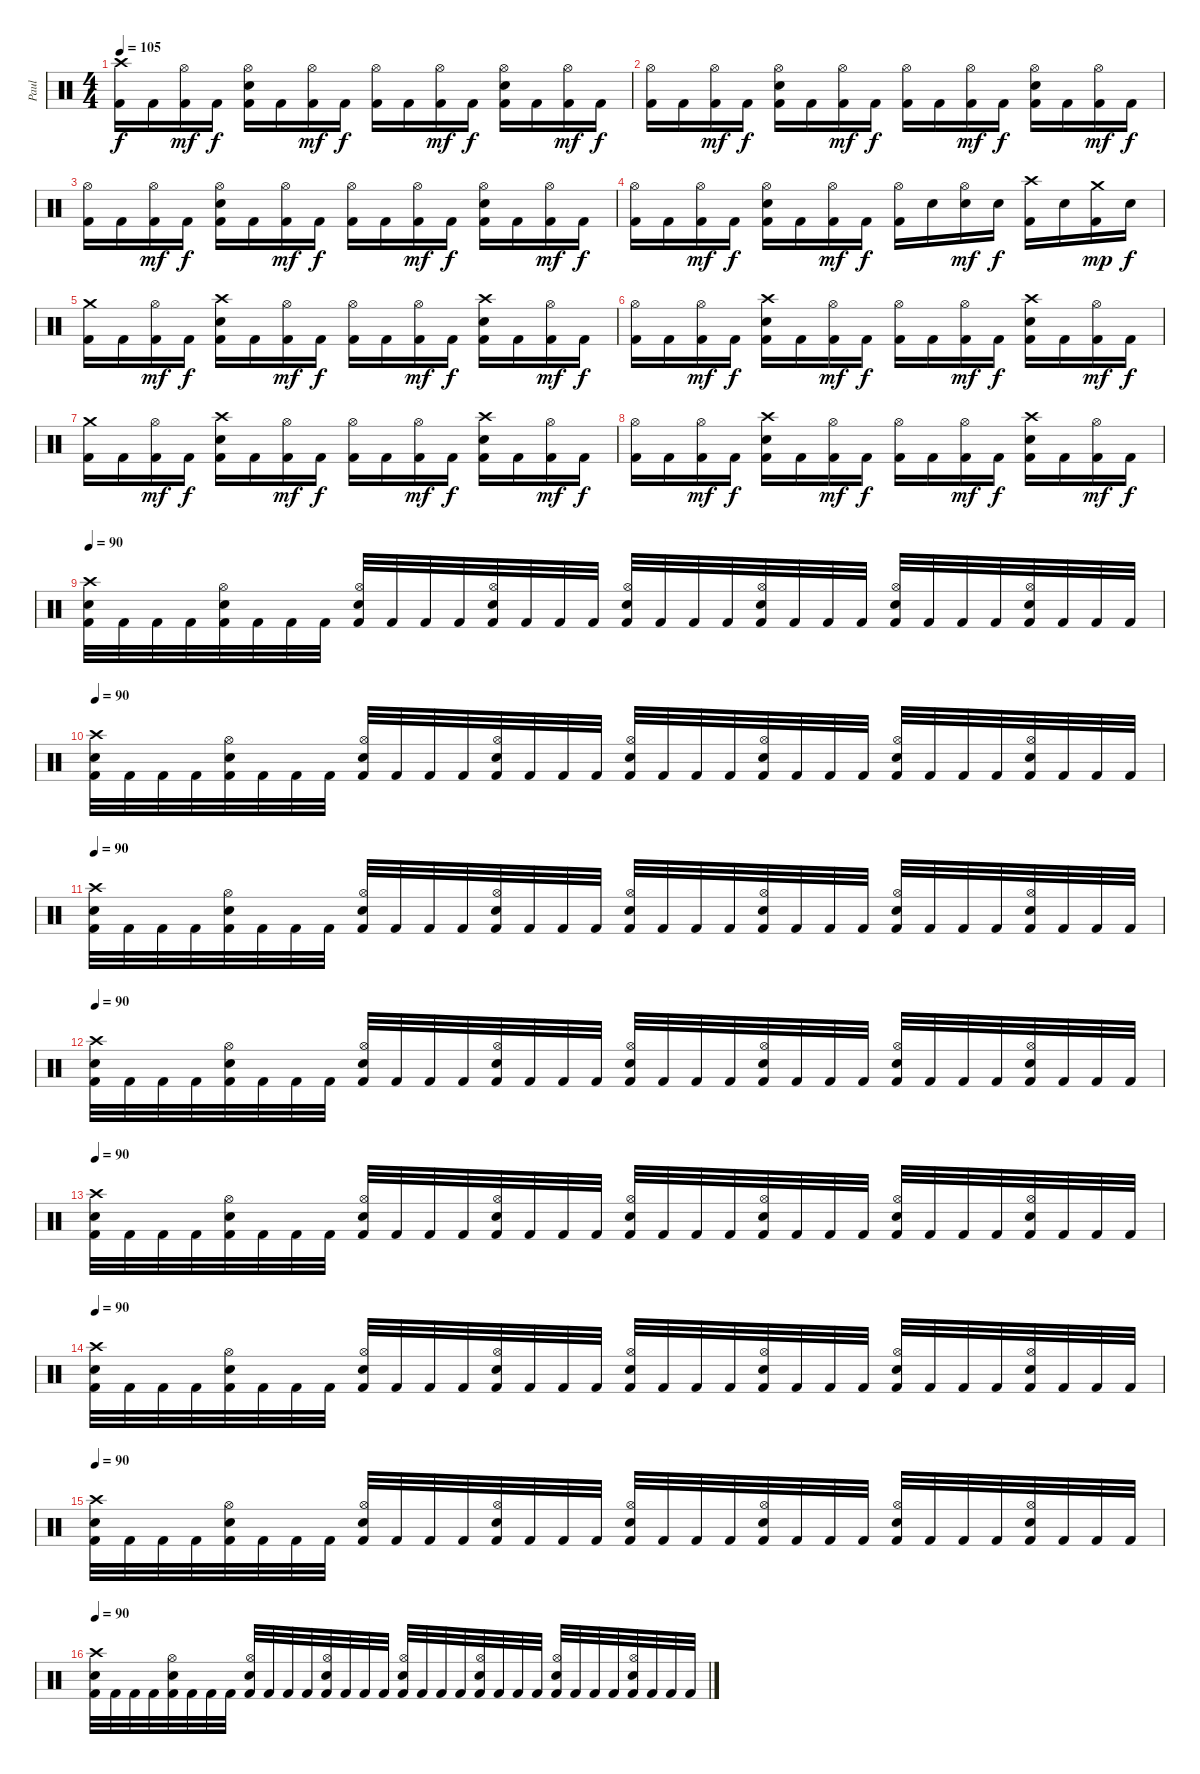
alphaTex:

\track ("Paul" "Paul") {instrument percussion}
\staff {score}
\articulation defaults
\ts (4 4)
\tempo 105
\clef neutral
\ks c
("Crash high (hit)" "Kick (hit) 2").16{dy f} "Kick (hit) 2".16 ("Hi-Hat (open)" "Kick (hit) 2").16{dy mf} "Kick (hit) 2".16{dy f} ("Hi-Hat (open)" "Electric Snare (hit)" "Kick (hit) 2").16 "Kick (hit) 2".16 ("Hi-Hat (open)" "Kick (hit) 2").16{dy mf} "Kick (hit) 2".16{dy f} ("Hi-Hat (open)" "Kick (hit) 2").16 "Kick (hit) 2".16 ("Hi-Hat (open)" "Kick (hit) 2").16{dy mf} "Kick (hit) 2".16{dy f} ("Hi-Hat (open)" "Electric Snare (hit)" "Kick (hit) 2").16 "Kick (hit) 2".16 ("Hi-Hat (open)" "Kick (hit) 2").16{dy mf} "Kick (hit) 2".16{dy f} |
("Hi-Hat (open)" "Kick (hit) 2").16 "Kick (hit) 2".16 ("Hi-Hat (open)" "Kick (hit) 2").16{dy mf} "Kick (hit) 2".16{dy f} ("Hi-Hat (open)" "Electric Snare (hit)" "Kick (hit) 2").16 "Kick (hit) 2".16 ("Hi-Hat (open)" "Kick (hit) 2").16{dy mf} "Kick (hit) 2".16{dy f} ("Hi-Hat (open)" "Kick (hit) 2").16 "Kick (hit) 2".16 ("Hi-Hat (open)" "Kick (hit) 2").16{dy mf} "Kick (hit) 2".16{dy f} ("Hi-Hat (open)" "Electric Snare (hit)" "Kick (hit) 2").16 "Kick (hit) 2".16 ("Hi-Hat (open)" "Kick (hit) 2").16{dy mf} "Kick (hit) 2".16{dy f} |
("Hi-Hat (open)" "Kick (hit) 2").16 "Kick (hit) 2".16 ("Hi-Hat (open)" "Kick (hit) 2").16{dy mf} "Kick (hit) 2".16{dy f} ("Hi-Hat (open)" "Electric Snare (hit)" "Kick (hit) 2").16 "Kick (hit) 2".16 ("Hi-Hat (open)" "Kick (hit) 2").16{dy mf} "Kick (hit) 2".16{dy f} ("Hi-Hat (open)" "Kick (hit) 2").16 "Kick (hit) 2".16 ("Hi-Hat (open)" "Kick (hit) 2").16{dy mf} "Kick (hit) 2".16{dy f} ("Hi-Hat (open)" "Electric Snare (hit)" "Kick (hit) 2").16 "Kick (hit) 2".16 ("Hi-Hat (open)" "Kick (hit) 2").16{dy mf} "Kick (hit) 2".16{dy f} |
("Hi-Hat (open)" "Kick (hit) 2").16 "Kick (hit) 2".16 ("Hi-Hat (open)" "Kick (hit) 2").16{dy mf} "Kick (hit) 2".16{dy f} ("Hi-Hat (open)" "Electric Snare (hit)" "Kick (hit) 2").16 "Kick (hit) 2".16 ("Hi-Hat (open)" "Kick (hit) 2").16{dy mf} "Kick (hit) 2".16{dy f} ("Hi-Hat (open)" "Kick (hit) 2").16 "Electric Snare (hit)".16 ("Hi-Hat (open)" "Electric Snare (hit)").16{dy mf} "Electric Snare (hit)".16{dy f} ("Crash high (hit)" "Kick (hit) 2").16 "Electric Snare (hit)".16 ("Crash medium (hit)" "Kick (hit) 2").16{dy mp} "Electric Snare (hit)".16{dy f} |
("Crash medium (hit)" "Kick (hit) 2").16 "Kick (hit) 2".16 ("Hi-Hat (open)" "Kick (hit) 2").16{dy mf} "Kick (hit) 2".16{dy f} ("Crash high (hit)" "Electric Snare (hit)" "Kick (hit) 2").16 "Kick (hit) 2".16 ("Hi-Hat (open)" "Kick (hit) 2").16{dy mf} "Kick (hit) 2".16{dy f} ("Hi-Hat (open)" "Kick (hit) 2").16 "Kick (hit) 2".16 ("Hi-Hat (open)" "Kick (hit) 2").16{dy mf} "Kick (hit) 2".16{dy f} ("Crash high (hit)" "Electric Snare (hit)" "Kick (hit) 2").16 "Kick (hit) 2".16 ("Hi-Hat (open)" "Kick (hit) 2").16{dy mf} "Kick (hit) 2".16{dy f} |
("Hi-Hat (open)" "Kick (hit) 2").16 "Kick (hit) 2".16 ("Hi-Hat (open)" "Kick (hit) 2").16{dy mf} "Kick (hit) 2".16{dy f} ("Crash high (hit)" "Electric Snare (hit)" "Kick (hit) 2").16 "Kick (hit) 2".16 ("Hi-Hat (open)" "Kick (hit) 2").16{dy mf} "Kick (hit) 2".16{dy f} ("Hi-Hat (open)" "Kick (hit) 2").16 "Kick (hit) 2".16 ("Hi-Hat (open)" "Kick (hit) 2").16{dy mf} "Kick (hit) 2".16{dy f} ("Crash high (hit)" "Electric Snare (hit)" "Kick (hit) 2").16 "Kick (hit) 2".16 ("Hi-Hat (open)" "Kick (hit) 2").16{dy mf} "Kick (hit) 2".16{dy f} |
("Crash medium (hit)" "Kick (hit) 2").16 "Kick (hit) 2".16 ("Hi-Hat (open)" "Kick (hit) 2").16{dy mf} "Kick (hit) 2".16{dy f} ("Crash high (hit)" "Electric Snare (hit)" "Kick (hit) 2").16 "Kick (hit) 2".16 ("Hi-Hat (open)" "Kick (hit) 2").16{dy mf} "Kick (hit) 2".16{dy f} ("Hi-Hat (open)" "Kick (hit) 2").16 "Kick (hit) 2".16 ("Hi-Hat (open)" "Kick (hit) 2").16{dy mf} "Kick (hit) 2".16{dy f} ("Crash high (hit)" "Electric Snare (hit)" "Kick (hit) 2").16 "Kick (hit) 2".16 ("Hi-Hat (open)" "Kick (hit) 2").16{dy mf} "Kick (hit) 2".16{dy f} |
("Hi-Hat (open)" "Kick (hit) 2").16 "Kick (hit) 2".16 ("Hi-Hat (open)" "Kick (hit) 2").16{dy mf} "Kick (hit) 2".16{dy f} ("Crash high (hit)" "Electric Snare (hit)" "Kick (hit) 2").16 "Kick (hit) 2".16 ("Hi-Hat (open)" "Kick (hit) 2").16{dy mf} "Kick (hit) 2".16{dy f} ("Hi-Hat (open)" "Kick (hit) 2").16 "Kick (hit) 2".16 ("Hi-Hat (open)" "Kick (hit) 2").16{dy mf} "Kick (hit) 2".16{dy f} ("Crash high (hit)" "Electric Snare (hit)" "Kick (hit) 2").16 "Kick (hit) 2".16 ("Hi-Hat (open)" "Kick (hit) 2").16{dy mf} "Kick (hit) 2".16{dy f} |
\tempo 90
("Crash high (hit)" "Electric Snare (hit)" "Kick (hit) 2").32 "Kick (hit) 2".32 "Kick (hit) 2".32 "Kick (hit) 2".32 ("Hi-Hat (open)" "Electric Snare (hit)" "Kick (hit) 2").32 "Kick (hit) 2".32 "Kick (hit) 2".32 "Kick (hit) 2".32 ("Hi-Hat (open)" "Electric Snare (hit)" "Kick (hit) 2").32 "Kick (hit) 2".32 "Kick (hit) 2".32 "Kick (hit) 2".32 ("Hi-Hat (open)" "Electric Snare (hit)" "Kick (hit) 2").32 "Kick (hit) 2".32 "Kick (hit) 2".32 "Kick (hit) 2".32 ("Hi-Hat (open)" "Electric Snare (hit)" "Kick (hit) 2").32 "Kick (hit) 2".32 "Kick (hit) 2".32 "Kick (hit) 2".32 ("Hi-Hat (open)" "Electric Snare (hit)" "Kick (hit) 2").32 "Kick (hit) 2".32 "Kick (hit) 2".32 "Kick (hit) 2".32 ("Hi-Hat (open)" "Electric Snare (hit)" "Kick (hit) 2").32 "Kick (hit) 2".32 "Kick (hit) 2".32 "Kick (hit) 2".32 ("Hi-Hat (open)" "Electric Snare (hit)" "Kick (hit) 2").32 "Kick (hit) 2".32 "Kick (hit) 2".32 "Kick (hit) 2".32 |
\tempo 90
("Crash high (hit)" "Electric Snare (hit)" "Kick (hit) 2").32 "Kick (hit) 2".32 "Kick (hit) 2".32 "Kick (hit) 2".32 ("Hi-Hat (open)" "Electric Snare (hit)" "Kick (hit) 2").32 "Kick (hit) 2".32 "Kick (hit) 2".32 "Kick (hit) 2".32 ("Hi-Hat (open)" "Electric Snare (hit)" "Kick (hit) 2").32 "Kick (hit) 2".32 "Kick (hit) 2".32 "Kick (hit) 2".32 ("Hi-Hat (open)" "Electric Snare (hit)" "Kick (hit) 2").32 "Kick (hit) 2".32 "Kick (hit) 2".32 "Kick (hit) 2".32 ("Hi-Hat (open)" "Electric Snare (hit)" "Kick (hit) 2").32 "Kick (hit) 2".32 "Kick (hit) 2".32 "Kick (hit) 2".32 ("Hi-Hat (open)" "Electric Snare (hit)" "Kick (hit) 2").32 "Kick (hit) 2".32 "Kick (hit) 2".32 "Kick (hit) 2".32 ("Hi-Hat (open)" "Electric Snare (hit)" "Kick (hit) 2").32 "Kick (hit) 2".32 "Kick (hit) 2".32 "Kick (hit) 2".32 ("Hi-Hat (open)" "Electric Snare (hit)" "Kick (hit) 2").32 "Kick (hit) 2".32 "Kick (hit) 2".32 "Kick (hit) 2".32 |
\tempo 90
("Crash high (hit)" "Electric Snare (hit)" "Kick (hit) 2").32 "Kick (hit) 2".32 "Kick (hit) 2".32 "Kick (hit) 2".32 ("Hi-Hat (open)" "Electric Snare (hit)" "Kick (hit) 2").32 "Kick (hit) 2".32 "Kick (hit) 2".32 "Kick (hit) 2".32 ("Hi-Hat (open)" "Electric Snare (hit)" "Kick (hit) 2").32 "Kick (hit) 2".32 "Kick (hit) 2".32 "Kick (hit) 2".32 ("Hi-Hat (open)" "Electric Snare (hit)" "Kick (hit) 2").32 "Kick (hit) 2".32 "Kick (hit) 2".32 "Kick (hit) 2".32 ("Hi-Hat (open)" "Electric Snare (hit)" "Kick (hit) 2").32 "Kick (hit) 2".32 "Kick (hit) 2".32 "Kick (hit) 2".32 ("Hi-Hat (open)" "Electric Snare (hit)" "Kick (hit) 2").32 "Kick (hit) 2".32 "Kick (hit) 2".32 "Kick (hit) 2".32 ("Hi-Hat (open)" "Electric Snare (hit)" "Kick (hit) 2").32 "Kick (hit) 2".32 "Kick (hit) 2".32 "Kick (hit) 2".32 ("Hi-Hat (open)" "Electric Snare (hit)" "Kick (hit) 2").32 "Kick (hit) 2".32 "Kick (hit) 2".32 "Kick (hit) 2".32 |
\tempo 90
("Crash high (hit)" "Electric Snare (hit)" "Kick (hit) 2").32 "Kick (hit) 2".32 "Kick (hit) 2".32 "Kick (hit) 2".32 ("Hi-Hat (open)" "Electric Snare (hit)" "Kick (hit) 2").32 "Kick (hit) 2".32 "Kick (hit) 2".32 "Kick (hit) 2".32 ("Hi-Hat (open)" "Electric Snare (hit)" "Kick (hit) 2").32 "Kick (hit) 2".32 "Kick (hit) 2".32 "Kick (hit) 2".32 ("Hi-Hat (open)" "Electric Snare (hit)" "Kick (hit) 2").32 "Kick (hit) 2".32 "Kick (hit) 2".32 "Kick (hit) 2".32 ("Hi-Hat (open)" "Electric Snare (hit)" "Kick (hit) 2").32 "Kick (hit) 2".32 "Kick (hit) 2".32 "Kick (hit) 2".32 ("Hi-Hat (open)" "Electric Snare (hit)" "Kick (hit) 2").32 "Kick (hit) 2".32 "Kick (hit) 2".32 "Kick (hit) 2".32 ("Hi-Hat (open)" "Electric Snare (hit)" "Kick (hit) 2").32 "Kick (hit) 2".32 "Kick (hit) 2".32 "Kick (hit) 2".32 ("Hi-Hat (open)" "Electric Snare (hit)" "Kick (hit) 2").32 "Kick (hit) 2".32 "Kick (hit) 2".32 "Kick (hit) 2".32 |
\tempo 90
("Crash high (hit)" "Electric Snare (hit)" "Kick (hit) 2").32 "Kick (hit) 2".32 "Kick (hit) 2".32 "Kick (hit) 2".32 ("Hi-Hat (open)" "Electric Snare (hit)" "Kick (hit) 2").32 "Kick (hit) 2".32 "Kick (hit) 2".32 "Kick (hit) 2".32 ("Hi-Hat (open)" "Electric Snare (hit)" "Kick (hit) 2").32 "Kick (hit) 2".32 "Kick (hit) 2".32 "Kick (hit) 2".32 ("Hi-Hat (open)" "Electric Snare (hit)" "Kick (hit) 2").32 "Kick (hit) 2".32 "Kick (hit) 2".32 "Kick (hit) 2".32 ("Hi-Hat (open)" "Electric Snare (hit)" "Kick (hit) 2").32 "Kick (hit) 2".32 "Kick (hit) 2".32 "Kick (hit) 2".32 ("Hi-Hat (open)" "Electric Snare (hit)" "Kick (hit) 2").32 "Kick (hit) 2".32 "Kick (hit) 2".32 "Kick (hit) 2".32 ("Hi-Hat (open)" "Electric Snare (hit)" "Kick (hit) 2").32 "Kick (hit) 2".32 "Kick (hit) 2".32 "Kick (hit) 2".32 ("Hi-Hat (open)" "Electric Snare (hit)" "Kick (hit) 2").32 "Kick (hit) 2".32 "Kick (hit) 2".32 "Kick (hit) 2".32 |
\tempo 90
("Crash high (hit)" "Electric Snare (hit)" "Kick (hit) 2").32 "Kick (hit) 2".32 "Kick (hit) 2".32 "Kick (hit) 2".32 ("Hi-Hat (open)" "Electric Snare (hit)" "Kick (hit) 2").32 "Kick (hit) 2".32 "Kick (hit) 2".32 "Kick (hit) 2".32 ("Hi-Hat (open)" "Electric Snare (hit)" "Kick (hit) 2").32 "Kick (hit) 2".32 "Kick (hit) 2".32 "Kick (hit) 2".32 ("Hi-Hat (open)" "Electric Snare (hit)" "Kick (hit) 2").32 "Kick (hit) 2".32 "Kick (hit) 2".32 "Kick (hit) 2".32 ("Hi-Hat (open)" "Electric Snare (hit)" "Kick (hit) 2").32 "Kick (hit) 2".32 "Kick (hit) 2".32 "Kick (hit) 2".32 ("Hi-Hat (open)" "Electric Snare (hit)" "Kick (hit) 2").32 "Kick (hit) 2".32 "Kick (hit) 2".32 "Kick (hit) 2".32 ("Hi-Hat (open)" "Electric Snare (hit)" "Kick (hit) 2").32 "Kick (hit) 2".32 "Kick (hit) 2".32 "Kick (hit) 2".32 ("Hi-Hat (open)" "Electric Snare (hit)" "Kick (hit) 2").32 "Kick (hit) 2".32 "Kick (hit) 2".32 "Kick (hit) 2".32 |
\tempo 90
("Crash high (hit)" "Electric Snare (hit)" "Kick (hit) 2").32 "Kick (hit) 2".32 "Kick (hit) 2".32 "Kick (hit) 2".32 ("Hi-Hat (open)" "Electric Snare (hit)" "Kick (hit) 2").32 "Kick (hit) 2".32 "Kick (hit) 2".32 "Kick (hit) 2".32 ("Hi-Hat (open)" "Electric Snare (hit)" "Kick (hit) 2").32 "Kick (hit) 2".32 "Kick (hit) 2".32 "Kick (hit) 2".32 ("Hi-Hat (open)" "Electric Snare (hit)" "Kick (hit) 2").32 "Kick (hit) 2".32 "Kick (hit) 2".32 "Kick (hit) 2".32 ("Hi-Hat (open)" "Electric Snare (hit)" "Kick (hit) 2").32 "Kick (hit) 2".32 "Kick (hit) 2".32 "Kick (hit) 2".32 ("Hi-Hat (open)" "Electric Snare (hit)" "Kick (hit) 2").32 "Kick (hit) 2".32 "Kick (hit) 2".32 "Kick (hit) 2".32 ("Hi-Hat (open)" "Electric Snare (hit)" "Kick (hit) 2").32 "Kick (hit) 2".32 "Kick (hit) 2".32 "Kick (hit) 2".32 ("Hi-Hat (open)" "Electric Snare (hit)" "Kick (hit) 2").32 "Kick (hit) 2".32 "Kick (hit) 2".32 "Kick (hit) 2".32 |
\tempo 90
("Crash high (hit)" "Electric Snare (hit)" "Kick (hit) 2").32 "Kick (hit) 2".32 "Kick (hit) 2".32 "Kick (hit) 2".32 ("Hi-Hat (open)" "Electric Snare (hit)" "Kick (hit) 2").32 "Kick (hit) 2".32 "Kick (hit) 2".32 "Kick (hit) 2".32 ("Hi-Hat (open)" "Electric Snare (hit)" "Kick (hit) 2").32 "Kick (hit) 2".32 "Kick (hit) 2".32 "Kick (hit) 2".32 ("Hi-Hat (open)" "Electric Snare (hit)" "Kick (hit) 2").32 "Kick (hit) 2".32 "Kick (hit) 2".32 "Kick (hit) 2".32 ("Hi-Hat (open)" "Electric Snare (hit)" "Kick (hit) 2").32 "Kick (hit) 2".32 "Kick (hit) 2".32 "Kick (hit) 2".32 ("Hi-Hat (open)" "Electric Snare (hit)" "Kick (hit) 2").32 "Kick (hit) 2".32 "Kick (hit) 2".32 "Kick (hit) 2".32 ("Hi-Hat (open)" "Electric Snare (hit)" "Kick (hit) 2").32 "Kick (hit) 2".32 "Kick (hit) 2".32 "Kick (hit) 2".32 ("Hi-Hat (open)" "Electric Snare (hit)" "Kick (hit) 2").32 "Kick (hit) 2".32 "Kick (hit) 2".32 "Kick (hit) 2".32
